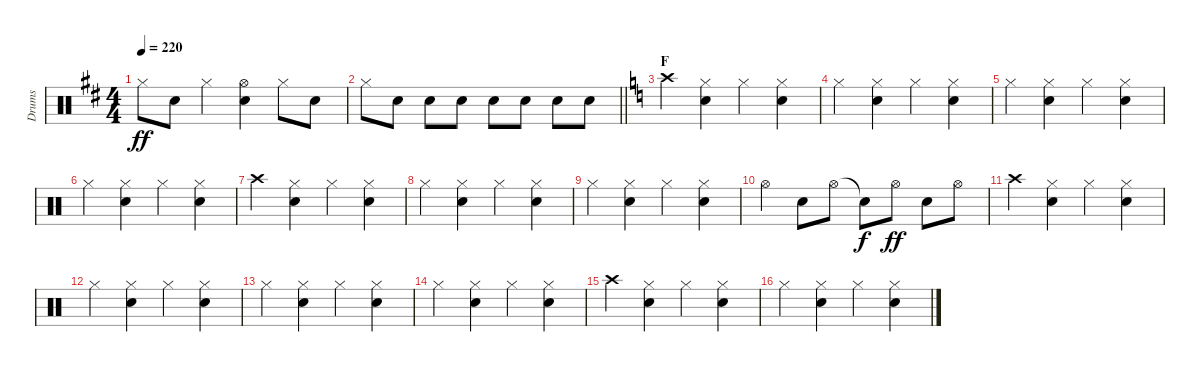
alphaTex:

\track ("Drums" "Drums") {instrument percussion}
\staff {score}
\articulation defaults
\ts (4 4)
\tempo 220
\clef neutral
\ks d "Hi-Hat (closed)".8{dy ff} "Snare (hit) 2".8 "Hi-Hat (closed)".4
("Hi-Hat (open)" "Snare (hit) 2").4 "Hi-Hat (closed)".8 "Snare (hit) 2".8 |
\barLineRight lightlight "Hi-Hat (closed)".8 "Snare (hit) 2".8 "Snare (hit) 2".8 "Snare (hit) 2".8 "Snare (hit) 2".8 "Snare (hit) 2".8 "Snare (hit) 2".8 "Snare (hit) 2".8
|
\section ("" "F")
\ks c "Crash high (hit)".4
("Hi-Hat (closed)" "Snare (hit) 2").4 "Hi-Hat (closed)".4 ("Hi-Hat (closed)" "Snare (hit) 2").4 |
"Hi-Hat (closed)".4 ("Hi-Hat (closed)" "Snare (hit) 2").4 "Hi-Hat (closed)".4 ("Hi-Hat (closed)" "Snare (hit) 2").4 |
"Hi-Hat (closed)".4 ("Hi-Hat (closed)" "Snare (hit) 2").4 "Hi-Hat (closed)".4 ("Hi-Hat (closed)" "Snare (hit) 2").4 |
"Hi-Hat (closed)".4 ("Hi-Hat (closed)" "Snare (hit) 2").4 "Hi-Hat (closed)".4 ("Hi-Hat (closed)" "Snare (hit) 2").4 |
"Crash high (hit)".4 ("Hi-Hat (closed)" "Snare (hit) 2").4 "Hi-Hat (closed)".4 ("Hi-Hat (closed)" "Snare (hit) 2").4 |
"Hi-Hat (closed)".4 ("Hi-Hat (closed)" "Snare (hit) 2").4 "Hi-Hat (closed)".4 ("Hi-Hat (closed)" "Snare (hit) 2").4 |
"Hi-Hat (closed)".4 ("Hi-Hat (closed)" "Snare (hit) 2").4 "Hi-Hat (closed)".4 ("Hi-Hat (closed)" "Snare (hit) 2").4 |
"Hi-Hat (open)".4 "Snare (hit) 2".8 "Hi-Hat (open)".8 "Snare (hit)"{t}.8{dy f} "Hi-Hat (open)".8{dy ff} "Snare (hit) 2".8 "Hi-Hat (open)".8 |
"Crash high (hit)".4 ("Hi-Hat (closed)" "Snare (hit) 2").4 "Hi-Hat (closed)".4 ("Hi-Hat (closed)" "Snare (hit) 2").4 |
"Hi-Hat (closed)".4 ("Hi-Hat (closed)" "Snare (hit) 2").4 "Hi-Hat (closed)".4 ("Hi-Hat (closed)" "Snare (hit) 2").4 |
"Hi-Hat (closed)".4 ("Hi-Hat (closed)" "Snare (hit) 2").4 "Hi-Hat (closed)".4 ("Hi-Hat (closed)" "Snare (hit) 2").4 |
"Hi-Hat (closed)".4 ("Hi-Hat (closed)" "Snare (hit) 2").4 "Hi-Hat (closed)".4 ("Hi-Hat (closed)" "Snare (hit) 2").4 |
"Crash high (hit)".4 ("Hi-Hat (closed)" "Snare (hit) 2").4 "Hi-Hat (closed)".4 ("Hi-Hat (closed)" "Snare (hit) 2").4 |
"Hi-Hat (closed)".4 ("Hi-Hat (closed)" "Snare (hit) 2").4 "Hi-Hat (closed)".4 ("Hi-Hat (closed)" "Snare (hit) 2").4
